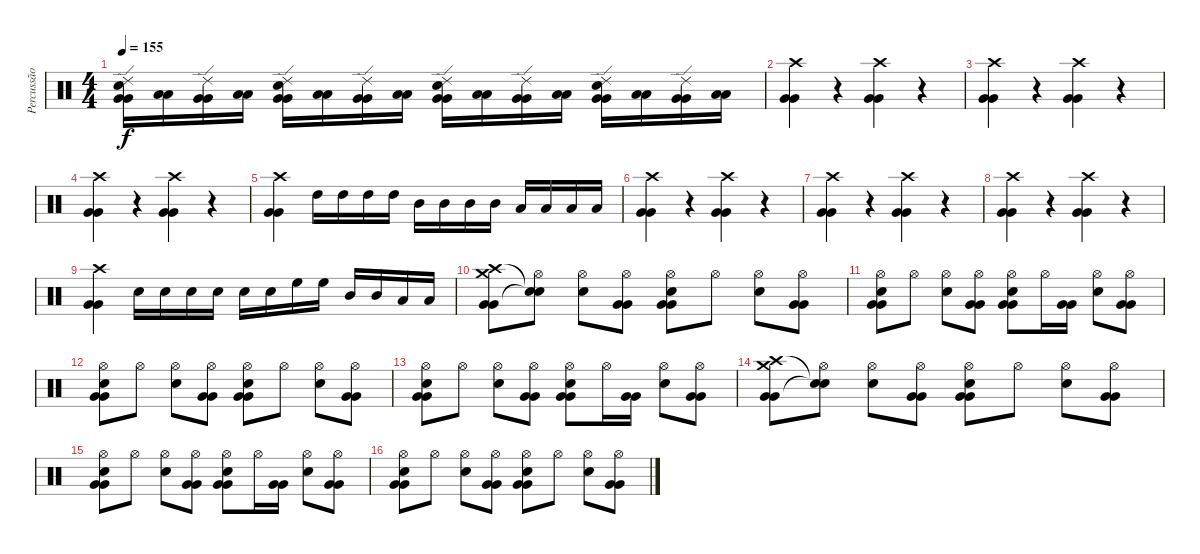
\track ("Percussão" "Percussão") {instrument percussion}
\staff {score}
\articulation defaults
\ts (4 4)
\tempo 155
\clef neutral
\ks c
("Electric Snare (hit)" "Ride (edge) 2" "Very Low Tom (hit)" "Very Low Tom (hit)").16{dy f} ("Low Floor Tom (hit)" "Low Floor Tom (hit)").16 ("Ride (edge) 2" "Very Low Tom (hit)" "Very Low Tom (hit)").16 ("Low Floor Tom (hit)" "Low Floor Tom (hit)").16 ("Electric Snare (hit)" "Ride (edge) 2" "Very Low Tom (hit)" "Very Low Tom (hit)").16 ("Low Floor Tom (hit)" "Low Floor Tom (hit)").16 ("Ride (edge) 2" "Very Low Tom (hit)" "Very Low Tom (hit)").16 ("Low Floor Tom (hit)" "Low Floor Tom (hit)").16 ("Electric Snare (hit)" "Ride (edge) 2" "Very Low Tom (hit)" "Very Low Tom (hit)").16 ("Low Floor Tom (hit)" "Low Floor Tom (hit)").16 ("Ride (edge) 2" "Very Low Tom (hit)" "Very Low Tom (hit)").16 ("Low Floor Tom (hit)" "Low Floor Tom (hit)").16 ("Electric Snare (hit)" "Ride (edge) 2" "Very Low Tom (hit)" "Very Low Tom (hit)").16 ("Low Floor Tom (hit)" "Low Floor Tom (hit)").16 ("Ride (edge) 2" "Very Low Tom (hit)" "Very Low Tom (hit)").16 ("Low Floor Tom (hit)" "Low Floor Tom (hit)").16 |
("Crash high (hit)" "Very Low Tom (hit)" "Very Low Tom (hit)").4 r.4 ("Crash high (hit)" "Very Low Tom (hit)" "Very Low Tom (hit)").4 r.4 |
("Crash high (hit)" "Very Low Tom (hit)" "Very Low Tom (hit)").4 r.4 ("Crash high (hit)" "Very Low Tom (hit)" "Very Low Tom (hit)").4 r.4 |
("Crash high (hit)" "Very Low Tom (hit)" "Very Low Tom (hit)").4 r.4 ("Crash high (hit)" "Very Low Tom (hit)" "Very Low Tom (hit)").4 r.4 |
("Crash high (hit)" "Very Low Tom (hit)" "Very Low Tom (hit)").4 "High Tom (hit)".16 "High Tom (hit)".16 "High Tom (hit)".16 "High Tom (hit)".16 "Mid Tom (hit)".16 "Mid Tom (hit)".16 "Mid Tom (hit)".16 "Mid Tom (hit)".16 "Low Tom (hit)".16 "Low Tom (hit)".16 "Low Tom (hit)".16 "Low Tom (hit)".16 |
("Crash high (hit)" "Very Low Tom (hit)" "Very Low Tom (hit)").4 r.4 ("Crash high (hit)" "Very Low Tom (hit)" "Very Low Tom (hit)").4 r.4 |
("Crash high (hit)" "Very Low Tom (hit)" "Very Low Tom (hit)").4 r.4 ("Crash high (hit)" "Very Low Tom (hit)" "Very Low Tom (hit)").4 r.4 |
("Crash high (hit)" "Very Low Tom (hit)" "Very Low Tom (hit)").4 r.4 ("Crash high (hit)" "Very Low Tom (hit)" "Very Low Tom (hit)").4 r.4 |
("Crash high (hit)" "Very Low Tom (hit)" "Very Low Tom (hit)").4 "Electric Snare (hit)".16 "Electric Snare (hit)".16 "Electric Snare (hit)".16 "Electric Snare (hit)".16 "Electric Snare (hit)".16 "Electric Snare (hit)".16 "High Floor Tom (hit)".16 "High Floor Tom (hit)".16 "Mid Tom (hit)".16 "Mid Tom (hit)".16 "Low Tom (hit)".16 "Low Tom (hit)".16 |
("Crash medium (hit)" "Crash high (hit)" "Very Low Tom (hit)" "Very Low Tom (hit)").8 ("Hi-Hat (open)" "Snare (hit)"{t} "Snare (hit)"{t}).8 ("Hi-Hat (open)" "Electric Snare (hit)").8 ("Hi-Hat (open)" "Very Low Tom (hit)" "Very Low Tom (hit)").8 ("Hi-Hat (open)" "Electric Snare (hit)" "Very Low Tom (hit)" "Very Low Tom (hit)").8 "Hi-Hat (open)".8 ("Hi-Hat (open)" "Electric Snare (hit)").8 ("Hi-Hat (open)" "Very Low Tom (hit)" "Very Low Tom (hit)").8 |
("Hi-Hat (open)" "Electric Snare (hit)" "Very Low Tom (hit)" "Very Low Tom (hit)").8 "Hi-Hat (open)".8 ("Hi-Hat (open)" "Electric Snare (hit)").8 ("Hi-Hat (open)" "Very Low Tom (hit)" "Very Low Tom (hit)").8 ("Hi-Hat (open)" "Electric Snare (hit)" "Very Low Tom (hit)" "Very Low Tom (hit)").8 "Hi-Hat (open)".16 ("Very Low Tom (hit)" "Very Low Tom (hit)").16 ("Hi-Hat (open)" "Electric Snare (hit)").8 ("Hi-Hat (open)" "Very Low Tom (hit)" "Very Low Tom (hit)").8 |
("Hi-Hat (open)" "Electric Snare (hit)" "Very Low Tom (hit)" "Very Low Tom (hit)").8 "Hi-Hat (open)".8 ("Hi-Hat (open)" "Electric Snare (hit)").8 ("Hi-Hat (open)" "Very Low Tom (hit)" "Very Low Tom (hit)").8 ("Hi-Hat (open)" "Electric Snare (hit)" "Very Low Tom (hit)" "Very Low Tom (hit)").8 "Hi-Hat (open)".8 ("Hi-Hat (open)" "Electric Snare (hit)").8 ("Hi-Hat (open)" "Very Low Tom (hit)" "Very Low Tom (hit)").8 |
("Hi-Hat (open)" "Electric Snare (hit)" "Very Low Tom (hit)" "Very Low Tom (hit)").8 "Hi-Hat (open)".8 ("Hi-Hat (open)" "Electric Snare (hit)").8 ("Hi-Hat (open)" "Very Low Tom (hit)" "Very Low Tom (hit)").8 ("Hi-Hat (open)" "Electric Snare (hit)" "Very Low Tom (hit)" "Very Low Tom (hit)").8 "Hi-Hat (open)".16 ("Very Low Tom (hit)" "Very Low Tom (hit)").16 ("Hi-Hat (open)" "Electric Snare (hit)").8 ("Hi-Hat (open)" "Very Low Tom (hit)" "Very Low Tom (hit)").8 |
("Crash medium (hit)" "Crash high (hit)" "Very Low Tom (hit)" "Very Low Tom (hit)").8 ("Hi-Hat (open)" "Snare (hit)"{t} "Snare (hit)"{t}).8 ("Hi-Hat (open)" "Electric Snare (hit)").8 ("Hi-Hat (open)" "Very Low Tom (hit)" "Very Low Tom (hit)").8 ("Hi-Hat (open)" "Electric Snare (hit)" "Very Low Tom (hit)" "Very Low Tom (hit)").8 "Hi-Hat (open)".8 ("Hi-Hat (open)" "Electric Snare (hit)").8 ("Hi-Hat (open)" "Very Low Tom (hit)" "Very Low Tom (hit)").8 |
("Hi-Hat (open)" "Electric Snare (hit)" "Very Low Tom (hit)" "Very Low Tom (hit)").8 "Hi-Hat (open)".8 ("Hi-Hat (open)" "Electric Snare (hit)").8 ("Hi-Hat (open)" "Very Low Tom (hit)" "Very Low Tom (hit)").8 ("Hi-Hat (open)" "Electric Snare (hit)" "Very Low Tom (hit)" "Very Low Tom (hit)").8 "Hi-Hat (open)".16 ("Very Low Tom (hit)" "Very Low Tom (hit)").16 ("Hi-Hat (open)" "Electric Snare (hit)").8 ("Hi-Hat (open)" "Very Low Tom (hit)" "Very Low Tom (hit)").8 |
("Hi-Hat (open)" "Electric Snare (hit)" "Very Low Tom (hit)" "Very Low Tom (hit)").8 "Hi-Hat (open)".8 ("Hi-Hat (open)" "Electric Snare (hit)").8 ("Hi-Hat (open)" "Very Low Tom (hit)" "Very Low Tom (hit)").8 ("Hi-Hat (open)" "Electric Snare (hit)" "Very Low Tom (hit)" "Very Low Tom (hit)").8 "Hi-Hat (open)".8 ("Hi-Hat (open)" "Electric Snare (hit)").8 ("Hi-Hat (open)" "Very Low Tom (hit)" "Very Low Tom (hit)").8
